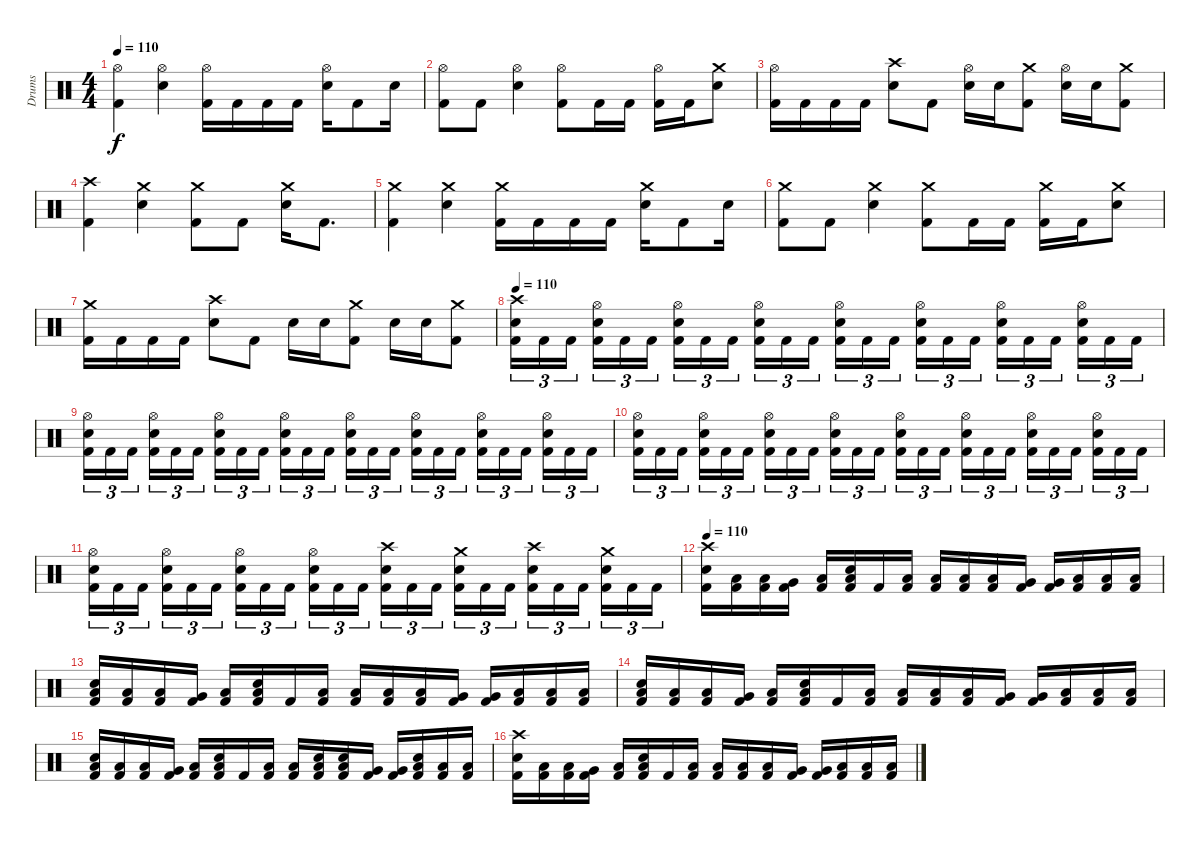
\track ("Drums" "Drums") {instrument percussion}
\staff {score}
\articulation defaults
\ts (4 4)
\tempo 110
\clef neutral
\ks c
("Hi-Hat (open)" "Kick (hit) 2").4{dy f} ("Hi-Hat (open)" "Electric Snare (hit)").4 ("Hi-Hat (open)" "Kick (hit) 2").16 "Kick (hit) 2".16 "Kick (hit) 2".16 "Kick (hit) 2".16 ("Hi-Hat (open)" "Electric Snare (hit)").16 "Kick (hit) 2".8 "Electric Snare (hit)".16 |
("Hi-Hat (open)" "Kick (hit) 2").8 "Kick (hit) 2".8 ("Hi-Hat (open)" "Electric Snare (hit)").4 ("Hi-Hat (open)" "Kick (hit) 2").8 "Kick (hit) 2".16 "Kick (hit) 2".16 ("Hi-Hat (open)" "Kick (hit) 2").16 "Kick (hit) 2".16 ("Crash medium (hit)" "Electric Snare (hit)").8 |
("Hi-Hat (open)" "Kick (hit) 2").16 "Kick (hit) 2".16 "Kick (hit) 2".16 "Kick (hit) 2".16 ("Crash high (hit)" "Electric Snare (hit)").8 "Kick (hit) 2".8 ("Hi-Hat (open)" "Electric Snare (hit)").16 "Electric Snare (hit)".16 ("Crash medium (hit)" "Kick (hit) 2").8 ("Hi-Hat (open)" "Electric Snare (hit)").16 "Electric Snare (hit)".16 ("Crash medium (hit)" "Kick (hit) 2").8 |
("Crash high (hit)" "Kick (hit) 2").4 ("Crash medium (hit)" "Electric Snare (hit)").4 ("Crash medium (hit)" "Kick (hit) 2").8 "Kick (hit) 2".8 ("Crash medium (hit)" "Electric Snare (hit)").16 "Kick (hit) 2".8{d} |
("Crash medium (hit)" "Kick (hit) 2").4 ("Crash medium (hit)" "Electric Snare (hit)").4 ("Crash medium (hit)" "Kick (hit) 2").16 "Kick (hit) 2".16 "Kick (hit) 2".16 "Kick (hit) 2".16 ("Crash medium (hit)" "Electric Snare (hit)").16 "Kick (hit) 2".8 "Electric Snare (hit)".16 |
("Crash medium (hit)" "Kick (hit) 2").8 "Kick (hit) 2".8 ("Crash medium (hit)" "Electric Snare (hit)").4 ("Crash medium (hit)" "Kick (hit) 2").8 "Kick (hit) 2".16 "Kick (hit) 2".16 ("Crash medium (hit)" "Kick (hit) 2").16 "Kick (hit) 2".16 ("Crash medium (hit)" "Electric Snare (hit)").8 |
("Crash medium (hit)" "Kick (hit) 2").16 "Kick (hit) 2".16 "Kick (hit) 2".16 "Kick (hit) 2".16 ("Crash high (hit)" "Electric Snare (hit)").8 "Kick (hit) 2".8 "Electric Snare (hit)".16 "Electric Snare (hit)".16 ("Crash medium (hit)" "Kick (hit) 2").8 "Electric Snare (hit)".16 "Electric Snare (hit)".16 ("Crash medium (hit)" "Kick (hit) 2").8 |
\tempo 110
("Crash high (hit)" "Electric Snare (hit)" "Kick (hit) 2").16{tu (3 2)} "Kick (hit) 2".16{tu (3 2)} "Kick (hit) 2".16{tu (3 2) beam splitsecondary} ("Hi-Hat (open)" "Electric Snare (hit)" "Kick (hit) 2").16{tu (3 2)} "Kick (hit) 2".16{tu (3 2)} "Kick (hit) 2".16{tu (3 2)} ("Hi-Hat (open)" "Electric Snare (hit)" "Kick (hit) 2").16{tu (3 2)} "Kick (hit) 2".16{tu (3 2)} "Kick (hit) 2".16{tu (3 2) beam splitsecondary} ("Hi-Hat (open)" "Electric Snare (hit)" "Kick (hit) 2").16{tu (3 2)} "Kick (hit) 2".16{tu (3 2)} "Kick (hit) 2".16{tu (3 2)} ("Hi-Hat (open)" "Electric Snare (hit)" "Kick (hit) 2").16{tu (3 2)} "Kick (hit) 2".16{tu (3 2)} "Kick (hit) 2".16{tu (3 2) beam splitsecondary} ("Hi-Hat (open)" "Electric Snare (hit)" "Kick (hit) 2").16{tu (3 2)} "Kick (hit) 2".16{tu (3 2)} "Kick (hit) 2".16{tu (3 2)} ("Hi-Hat (open)" "Electric Snare (hit)" "Kick (hit) 2").16{tu (3 2)} "Kick (hit) 2".16{tu (3 2)} "Kick (hit) 2".16{tu (3 2) beam splitsecondary} ("Hi-Hat (open)" "Electric Snare (hit)" "Kick (hit) 2").16{tu (3 2)} "Kick (hit) 2".16{tu (3 2)} "Kick (hit) 2".16{tu (3 2)} |
("Hi-Hat (open)" "Electric Snare (hit)" "Kick (hit) 2").16{tu (3 2)} "Kick (hit) 2".16{tu (3 2)} "Kick (hit) 2".16{tu (3 2) beam splitsecondary} ("Hi-Hat (open)" "Electric Snare (hit)" "Kick (hit) 2").16{tu (3 2)} "Kick (hit) 2".16{tu (3 2)} "Kick (hit) 2".16{tu (3 2)} ("Hi-Hat (open)" "Electric Snare (hit)" "Kick (hit) 2").16{tu (3 2)} "Kick (hit) 2".16{tu (3 2)} "Kick (hit) 2".16{tu (3 2) beam splitsecondary} ("Hi-Hat (open)" "Electric Snare (hit)" "Kick (hit) 2").16{tu (3 2)} "Kick (hit) 2".16{tu (3 2)} "Kick (hit) 2".16{tu (3 2)} ("Hi-Hat (open)" "Electric Snare (hit)" "Kick (hit) 2").16{tu (3 2)} "Kick (hit) 2".16{tu (3 2)} "Kick (hit) 2".16{tu (3 2) beam splitsecondary} ("Hi-Hat (open)" "Electric Snare (hit)" "Kick (hit) 2").16{tu (3 2)} "Kick (hit) 2".16{tu (3 2)} "Kick (hit) 2".16{tu (3 2)} ("Hi-Hat (open)" "Electric Snare (hit)" "Kick (hit) 2").16{tu (3 2)} "Kick (hit) 2".16{tu (3 2)} "Kick (hit) 2".16{tu (3 2) beam splitsecondary} ("Hi-Hat (open)" "Electric Snare (hit)" "Kick (hit) 2").16{tu (3 2)} "Kick (hit) 2".16{tu (3 2)} "Kick (hit) 2".16{tu (3 2)} |
("Hi-Hat (open)" "Electric Snare (hit)" "Kick (hit) 2").16{tu (3 2)} "Kick (hit) 2".16{tu (3 2)} "Kick (hit) 2".16{tu (3 2) beam splitsecondary} ("Hi-Hat (open)" "Electric Snare (hit)" "Kick (hit) 2").16{tu (3 2)} "Kick (hit) 2".16{tu (3 2)} "Kick (hit) 2".16{tu (3 2)} ("Hi-Hat (open)" "Electric Snare (hit)" "Kick (hit) 2").16{tu (3 2)} "Kick (hit) 2".16{tu (3 2)} "Kick (hit) 2".16{tu (3 2) beam splitsecondary} ("Hi-Hat (open)" "Electric Snare (hit)" "Kick (hit) 2").16{tu (3 2)} "Kick (hit) 2".16{tu (3 2)} "Kick (hit) 2".16{tu (3 2)} ("Hi-Hat (open)" "Electric Snare (hit)" "Kick (hit) 2").16{tu (3 2)} "Kick (hit) 2".16{tu (3 2)} "Kick (hit) 2".16{tu (3 2) beam splitsecondary} ("Hi-Hat (open)" "Electric Snare (hit)" "Kick (hit) 2").16{tu (3 2)} "Kick (hit) 2".16{tu (3 2)} "Kick (hit) 2".16{tu (3 2)} ("Hi-Hat (open)" "Electric Snare (hit)" "Kick (hit) 2").16{tu (3 2)} "Kick (hit) 2".16{tu (3 2)} "Kick (hit) 2".16{tu (3 2) beam splitsecondary} ("Hi-Hat (open)" "Electric Snare (hit)" "Kick (hit) 2").16{tu (3 2)} "Kick (hit) 2".16{tu (3 2)} "Kick (hit) 2".16{tu (3 2)} |
("Hi-Hat (open)" "Electric Snare (hit)" "Kick (hit) 2").16{tu (3 2)} "Kick (hit) 2".16{tu (3 2)} "Kick (hit) 2".16{tu (3 2) beam splitsecondary} ("Hi-Hat (open)" "Electric Snare (hit)" "Kick (hit) 2").16{tu (3 2)} "Kick (hit) 2".16{tu (3 2)} "Kick (hit) 2".16{tu (3 2)} ("Hi-Hat (open)" "Electric Snare (hit)" "Kick (hit) 2").16{tu (3 2)} "Kick (hit) 2".16{tu (3 2)} "Kick (hit) 2".16{tu (3 2) beam splitsecondary} ("Hi-Hat (open)" "Electric Snare (hit)" "Kick (hit) 2").16{tu (3 2)} "Kick (hit) 2".16{tu (3 2)} "Kick (hit) 2".16{tu (3 2)} ("Crash high (hit)" "Electric Snare (hit)" "Kick (hit) 2").16{tu (3 2)} "Kick (hit) 2".16{tu (3 2)} "Kick (hit) 2".16{tu (3 2) beam splitsecondary} ("Crash medium (hit)" "Electric Snare (hit)" "Kick (hit) 2").16{tu (3 2)} "Kick (hit) 2".16{tu (3 2)} "Kick (hit) 2".16{tu (3 2)} ("Crash high (hit)" "Electric Snare (hit)" "Kick (hit) 2").16{tu (3 2)} "Kick (hit) 2".16{tu (3 2)} "Kick (hit) 2".16{tu (3 2) beam splitsecondary} ("Crash medium (hit)" "Electric Snare (hit)" "Kick (hit) 2").16{tu (3 2)} "Kick (hit) 2".16{tu (3 2)} "Kick (hit) 2".16{tu (3 2)} |
\tempo 110
("Crash high (hit)" "Electric Snare (hit)" "Kick (hit) 2").16 ("Low Tom (hit)" "Kick (hit) 2").16 ("Low Tom (hit)" "Kick (hit) 2").16 ("Very Low Tom (hit)" "Kick (hit) 2").16 ("Low Floor Tom (hit)" "Kick (hit) 2").16 ("Low Floor Tom (hit)" "Electric Snare (hit)" "Kick (hit) 2").16 "Kick (hit) 2".16 ("Low Floor Tom (hit)" "Kick (hit) 2").16 ("Low Floor Tom (hit)" "Kick (hit) 2").16 ("Low Tom (hit)" "Kick (hit) 2").16 ("Low Tom (hit)" "Kick (hit) 2").16 ("Very Low Tom (hit)" "Kick (hit) 2").16 ("Very Low Tom (hit)" "Kick (hit) 2").16 ("Low Floor Tom (hit)" "Kick (hit) 2").16 ("Low Floor Tom (hit)" "Kick (hit) 2").16 ("Low Floor Tom (hit)" "Kick (hit) 2").16 |
("Low Floor Tom (hit)" "Electric Snare (hit)" "Kick (hit) 2").16 ("Low Tom (hit)" "Kick (hit) 2").16 ("Low Tom (hit)" "Kick (hit) 2").16 ("Very Low Tom (hit)" "Kick (hit) 2").16 ("Low Floor Tom (hit)" "Kick (hit) 2").16 ("Low Floor Tom (hit)" "Electric Snare (hit)" "Kick (hit) 2").16 "Kick (hit) 2".16 ("Low Floor Tom (hit)" "Kick (hit) 2").16 ("Low Floor Tom (hit)" "Kick (hit) 2").16 ("Low Tom (hit)" "Kick (hit) 2").16 ("Low Tom (hit)" "Kick (hit) 2").16 ("Very Low Tom (hit)" "Kick (hit) 2").16 ("Very Low Tom (hit)" "Kick (hit) 2").16 ("Low Floor Tom (hit)" "Kick (hit) 2").16 ("Low Floor Tom (hit)" "Kick (hit) 2").16 ("Low Floor Tom (hit)" "Kick (hit) 2").16 |
("Low Floor Tom (hit)" "Electric Snare (hit)" "Kick (hit) 2").16 ("Low Tom (hit)" "Kick (hit) 2").16 ("Low Tom (hit)" "Kick (hit) 2").16 ("Very Low Tom (hit)" "Kick (hit) 2").16 ("Low Floor Tom (hit)" "Kick (hit) 2").16 ("Low Floor Tom (hit)" "Electric Snare (hit)" "Kick (hit) 2").16 "Kick (hit) 2".16 ("Low Floor Tom (hit)" "Kick (hit) 2").16 ("Low Floor Tom (hit)" "Kick (hit) 2").16 ("Low Tom (hit)" "Kick (hit) 2").16 ("Low Tom (hit)" "Kick (hit) 2").16 ("Very Low Tom (hit)" "Kick (hit) 2").16 ("Very Low Tom (hit)" "Kick (hit) 2").16 ("Low Floor Tom (hit)" "Kick (hit) 2").16 ("Low Floor Tom (hit)" "Kick (hit) 2").16 ("Low Floor Tom (hit)" "Kick (hit) 2").16 |
("Low Floor Tom (hit)" "Electric Snare (hit)" "Kick (hit) 2").16 ("Low Tom (hit)" "Kick (hit) 2").16 ("Low Tom (hit)" "Kick (hit) 2").16 ("Very Low Tom (hit)" "Kick (hit) 2").16 ("Low Floor Tom (hit)" "Kick (hit) 2").16 ("Low Floor Tom (hit)" "Electric Snare (hit)" "Kick (hit) 2").16 "Kick (hit) 2".16 ("Low Floor Tom (hit)" "Kick (hit) 2").16 ("Low Floor Tom (hit)" "Kick (hit) 2").16 ("Low Tom (hit)" "Electric Snare (hit)" "Kick (hit) 2").16 ("Low Tom (hit)" "Electric Snare (hit)" "Kick (hit) 2").16 ("Very Low Tom (hit)" "Kick (hit) 2").16 ("Very Low Tom (hit)" "Kick (hit) 2").16 ("Low Floor Tom (hit)" "Electric Snare (hit)" "Kick (hit) 2").16 ("Low Floor Tom (hit)" "Kick (hit) 2").16 ("Low Floor Tom (hit)" "Kick (hit) 2").16 |
("Crash high (hit)" "Electric Snare (hit)" "Kick (hit) 2").16 ("Low Tom (hit)" "Kick (hit) 2").16 ("Low Tom (hit)" "Kick (hit) 2").16 ("Very Low Tom (hit)" "Kick (hit) 2").16 ("Low Floor Tom (hit)" "Kick (hit) 2").16 ("Low Floor Tom (hit)" "Electric Snare (hit)" "Kick (hit) 2").16 "Kick (hit) 2".16 ("Low Floor Tom (hit)" "Kick (hit) 2").16 ("Low Floor Tom (hit)" "Kick (hit) 2").16 ("Low Tom (hit)" "Kick (hit) 2").16 ("Low Tom (hit)" "Kick (hit) 2").16 ("Very Low Tom (hit)" "Kick (hit) 2").16 ("Very Low Tom (hit)" "Kick (hit) 2").16 ("Low Floor Tom (hit)" "Kick (hit) 2").16 ("Low Floor Tom (hit)" "Kick (hit) 2").16 ("Low Floor Tom (hit)" "Kick (hit) 2").16
